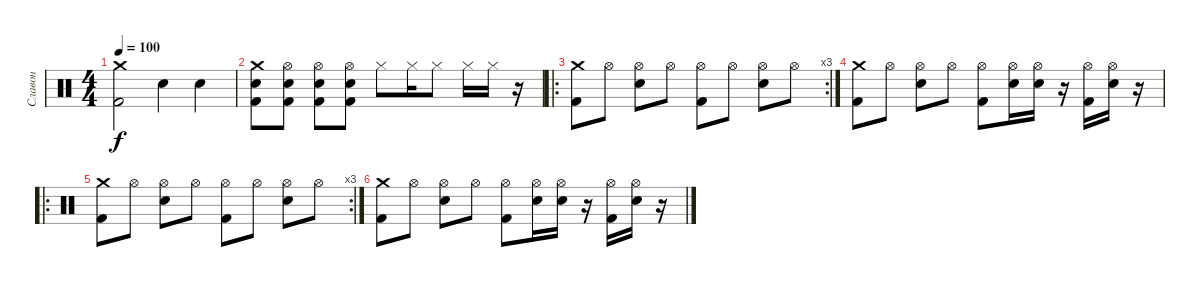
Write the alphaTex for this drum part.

\track ("Славон" "Славон") {instrument percussion}
\staff {score}
\articulation defaults
\ts (4 4)
\tempo 100
\clef neutral
\ks c
("Crash medium (hit)" "Kick (hit) 2").2{dy f} "Snare (hit) 2".4 "Snare (hit) 2".4 |
("Crash medium (hit)" "Snare (hit) 2" "Kick (hit) 2").8 ("Hi-Hat (open)" "Snare (hit) 2" "Kick (hit) 2").8 ("Hi-Hat (open)" "Snare (hit) 2" "Kick (hit) 2").8 ("Hi-Hat (open)" "Snare (hit) 2" "Kick (hit) 2").8 "Hi-Hat (closed)".8 "Hi-Hat (closed)".16 "Hi-Hat (closed)".8 "Hi-Hat (closed)".16 "Hi-Hat (closed)".16 r.16 |
\ro
\rc 3
("Crash medium (hit)" "Kick (hit) 2").8 "Hi-Hat (open)".8 ("Hi-Hat (open)" "Snare (hit) 2").8 "Hi-Hat (open)".8 ("Hi-Hat (open)" "Kick (hit) 2").8 "Hi-Hat (open)".8 ("Hi-Hat (open)" "Snare (hit) 2").8 "Hi-Hat (open)".8 |
("Crash medium (hit)" "Kick (hit) 2").8 "Hi-Hat (open)".8 ("Hi-Hat (open)" "Snare (hit) 2").8 "Hi-Hat (open)".8 ("Hi-Hat (open)" "Kick (hit) 2").8 ("Hi-Hat (open)" "Snare (hit) 2").16 ("Hi-Hat (open)" "Snare (hit) 2").16 r.16 ("Hi-Hat (open)" "Kick (hit) 2").16 ("Hi-Hat (open)" "Snare (hit) 2").16 r.16 |
\ro
\rc 3
("Crash medium (hit)" "Kick (hit) 2").8 "Hi-Hat (open)".8 ("Hi-Hat (open)" "Snare (hit) 2").8 "Hi-Hat (open)".8 ("Hi-Hat (open)" "Kick (hit) 2").8 "Hi-Hat (open)".8 ("Hi-Hat (open)" "Snare (hit) 2").8 "Hi-Hat (open)".8 |
("Crash medium (hit)" "Kick (hit) 2").8 "Hi-Hat (open)".8 ("Hi-Hat (open)" "Snare (hit) 2").8 "Hi-Hat (open)".8 ("Hi-Hat (open)" "Kick (hit) 2").8 ("Hi-Hat (open)" "Snare (hit) 2").16 ("Hi-Hat (open)" "Snare (hit) 2").16 r.16 ("Hi-Hat (open)" "Kick (hit) 2").16 ("Hi-Hat (open)" "Snare (hit) 2").16 r.16
